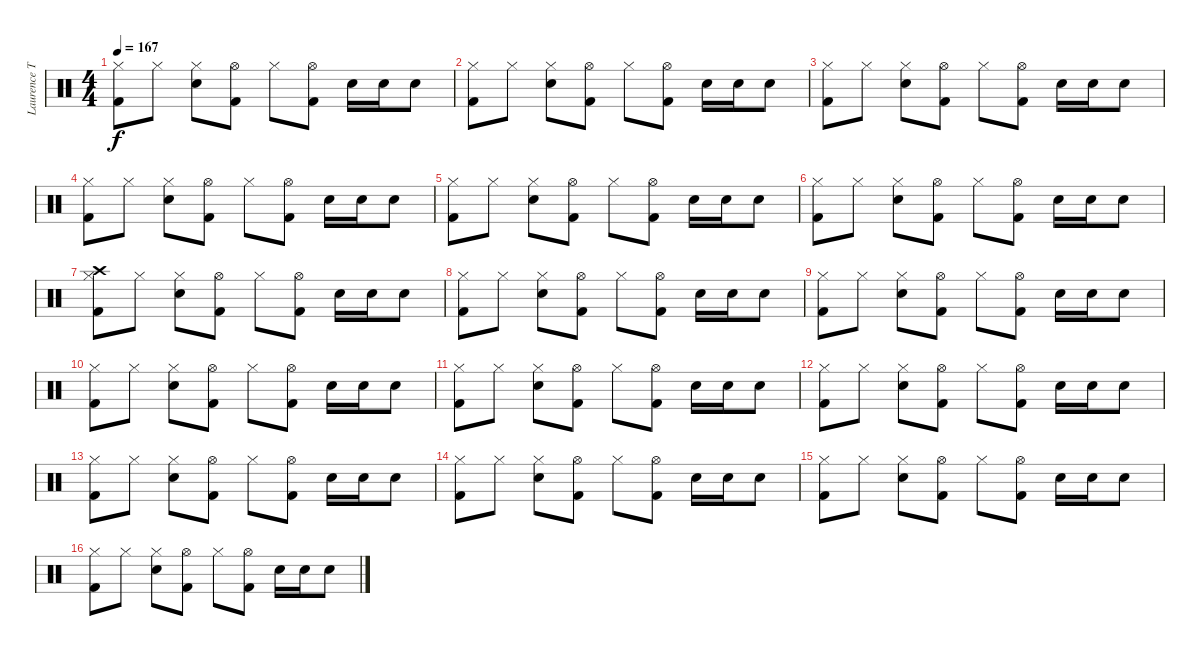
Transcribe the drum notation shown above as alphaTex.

\track ("Laurence Tolhurst" "Laurence T") {instrument percussion}
\staff {score}
\articulation defaults
\ts (4 4)
\tempo 167
\clef neutral
\ks c
("Kick (hit) 2" "Hi-Hat (closed)").8{dy f} "Hi-Hat (closed)".8 ("Hi-Hat (closed)" "Snare (hit) 2").8 ("Kick (hit) 2" "Hi-Hat (open)").8 "Hi-Hat (closed)".8 ("Hi-Hat (open)" "Kick (hit) 2").8 "Snare (hit) 2".16 "Snare (hit) 2".16 "Snare (hit) 2".8 |
("Kick (hit) 2" "Hi-Hat (closed)").8 "Hi-Hat (closed)".8 ("Hi-Hat (closed)" "Snare (hit) 2").8 ("Kick (hit) 2" "Hi-Hat (open)").8 "Hi-Hat (closed)".8 ("Hi-Hat (open)" "Kick (hit) 2").8 "Snare (hit) 2".16 "Snare (hit) 2".16 "Snare (hit) 2".8 |
("Kick (hit) 2" "Hi-Hat (closed)").8 "Hi-Hat (closed)".8 ("Hi-Hat (closed)" "Snare (hit) 2").8 ("Kick (hit) 2" "Hi-Hat (open)").8 "Hi-Hat (closed)".8 ("Hi-Hat (open)" "Kick (hit) 2").8 "Snare (hit) 2".16 "Snare (hit) 2".16 "Snare (hit) 2".8 |
("Kick (hit) 2" "Hi-Hat (closed)").8 "Hi-Hat (closed)".8 ("Hi-Hat (closed)" "Snare (hit) 2").8 ("Kick (hit) 2" "Hi-Hat (open)").8 "Hi-Hat (closed)".8 ("Hi-Hat (open)" "Kick (hit) 2").8 "Snare (hit) 2".16 "Snare (hit) 2".16 "Snare (hit) 2".8 |
("Kick (hit) 2" "Hi-Hat (closed)").8 "Hi-Hat (closed)".8 ("Hi-Hat (closed)" "Snare (hit) 2").8 ("Kick (hit) 2" "Hi-Hat (open)").8 "Hi-Hat (closed)".8 ("Hi-Hat (open)" "Kick (hit) 2").8 "Snare (hit) 2".16 "Snare (hit) 2".16 "Snare (hit) 2".8 |
("Kick (hit) 2" "Hi-Hat (closed)").8 "Hi-Hat (closed)".8 ("Hi-Hat (closed)" "Snare (hit) 2").8 ("Kick (hit) 2" "Hi-Hat (open)").8 "Hi-Hat (closed)".8 ("Hi-Hat (open)" "Kick (hit) 2").8 "Snare (hit) 2".16 "Snare (hit) 2".16 "Snare (hit) 2".8 |
("Kick (hit) 2" "Hi-Hat (closed)" "Crash high (hit)").8 "Hi-Hat (closed)".8 ("Hi-Hat (closed)" "Snare (hit) 2").8 ("Kick (hit) 2" "Hi-Hat (open)").8 "Hi-Hat (closed)".8 ("Hi-Hat (open)" "Kick (hit) 2").8 "Snare (hit) 2".16 "Snare (hit) 2".16 "Snare (hit) 2".8 |
("Kick (hit) 2" "Hi-Hat (closed)").8 "Hi-Hat (closed)".8 ("Hi-Hat (closed)" "Snare (hit) 2").8 ("Kick (hit) 2" "Hi-Hat (open)").8 "Hi-Hat (closed)".8 ("Hi-Hat (open)" "Kick (hit) 2").8 "Snare (hit) 2".16 "Snare (hit) 2".16 "Snare (hit) 2".8 |
("Kick (hit) 2" "Hi-Hat (closed)").8 "Hi-Hat (closed)".8 ("Hi-Hat (closed)" "Snare (hit) 2").8 ("Kick (hit) 2" "Hi-Hat (open)").8 "Hi-Hat (closed)".8 ("Hi-Hat (open)" "Kick (hit) 2").8 "Snare (hit) 2".16 "Snare (hit) 2".16 "Snare (hit) 2".8 |
("Kick (hit) 2" "Hi-Hat (closed)").8 "Hi-Hat (closed)".8 ("Hi-Hat (closed)" "Snare (hit) 2").8 ("Kick (hit) 2" "Hi-Hat (open)").8 "Hi-Hat (closed)".8 ("Hi-Hat (open)" "Kick (hit) 2").8 "Snare (hit) 2".16 "Snare (hit) 2".16 "Snare (hit) 2".8 |
("Kick (hit) 2" "Hi-Hat (closed)").8 "Hi-Hat (closed)".8 ("Hi-Hat (closed)" "Snare (hit) 2").8 ("Kick (hit) 2" "Hi-Hat (open)").8 "Hi-Hat (closed)".8 ("Hi-Hat (open)" "Kick (hit) 2").8 "Snare (hit) 2".16 "Snare (hit) 2".16 "Snare (hit) 2".8 |
("Kick (hit) 2" "Hi-Hat (closed)").8 "Hi-Hat (closed)".8 ("Hi-Hat (closed)" "Snare (hit) 2").8 ("Kick (hit) 2" "Hi-Hat (open)").8 "Hi-Hat (closed)".8 ("Hi-Hat (open)" "Kick (hit) 2").8 "Snare (hit) 2".16 "Snare (hit) 2".16 "Snare (hit) 2".8 |
("Kick (hit) 2" "Hi-Hat (closed)").8 "Hi-Hat (closed)".8 ("Hi-Hat (closed)" "Snare (hit) 2").8 ("Kick (hit) 2" "Hi-Hat (open)").8 "Hi-Hat (closed)".8 ("Hi-Hat (open)" "Kick (hit) 2").8 "Snare (hit) 2".16 "Snare (hit) 2".16 "Snare (hit) 2".8 |
("Kick (hit) 2" "Hi-Hat (closed)").8 "Hi-Hat (closed)".8 ("Hi-Hat (closed)" "Snare (hit) 2").8 ("Kick (hit) 2" "Hi-Hat (open)").8 "Hi-Hat (closed)".8 ("Hi-Hat (open)" "Kick (hit) 2").8 "Snare (hit) 2".16 "Snare (hit) 2".16 "Snare (hit) 2".8 |
("Kick (hit) 2" "Hi-Hat (closed)").8 "Hi-Hat (closed)".8 ("Hi-Hat (closed)" "Snare (hit) 2").8 ("Kick (hit) 2" "Hi-Hat (open)").8 "Hi-Hat (closed)".8 ("Hi-Hat (open)" "Kick (hit) 2").8 "Snare (hit) 2".16 "Snare (hit) 2".16 "Snare (hit) 2".8 |
("Kick (hit) 2" "Hi-Hat (closed)").8 "Hi-Hat (closed)".8 ("Hi-Hat (closed)" "Snare (hit) 2").8 ("Kick (hit) 2" "Hi-Hat (open)").8 "Hi-Hat (closed)".8 ("Hi-Hat (open)" "Kick (hit) 2").8 "Snare (hit) 2".16 "Snare (hit) 2".16 "Snare (hit) 2".8
